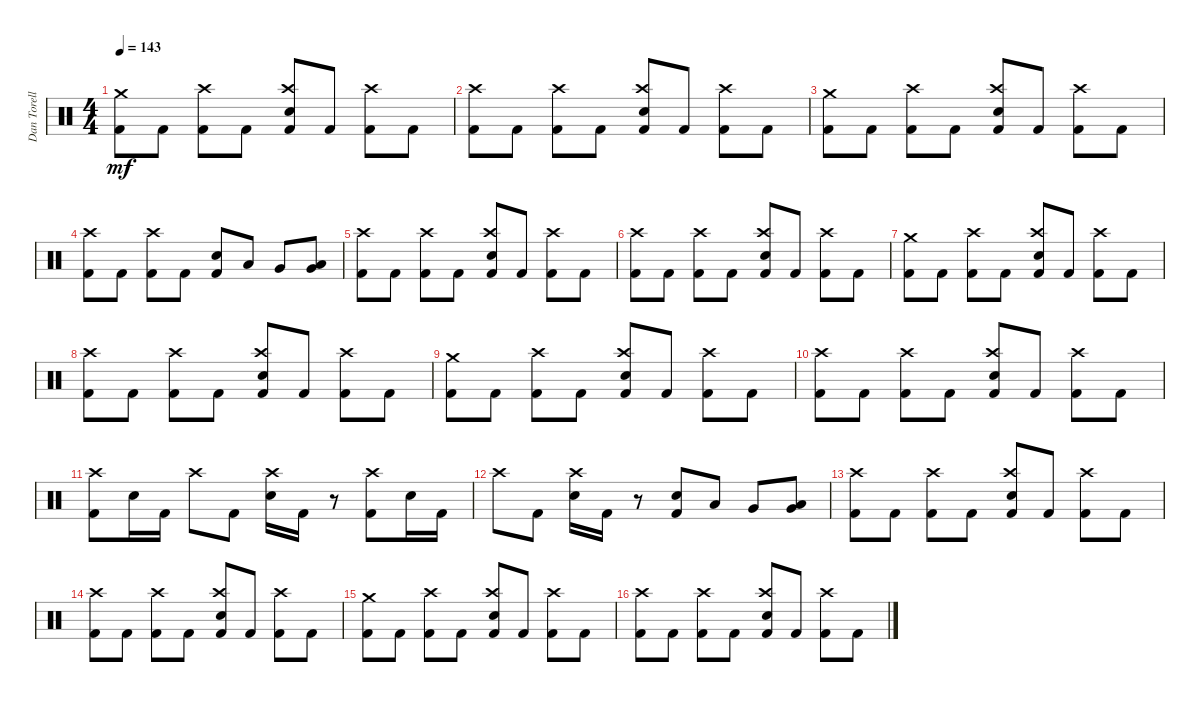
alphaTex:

\track ("Dan Torelli" "Dan Torell") {instrument percussion}
\staff {score}
\articulation defaults
\ts (4 4)
\tempo 143
\clef neutral
\ks c
("Crash medium (hit)" "Kick (hit) 2").8{dy mf} "Kick (hit) 2".8 ("Crash high (hit)" "Kick (hit) 2").8 "Kick (hit) 2".8 ("Crash high (hit)" "Snare (hit) 2" "Kick (hit) 2").8 "Kick (hit) 2".8 ("Crash high (hit)" "Kick (hit) 2").8 "Kick (hit) 2".8 |
("Crash high (hit)" "Kick (hit) 2").8 "Kick (hit) 2".8 ("Crash high (hit)" "Kick (hit) 2").8 "Kick (hit) 2".8 ("Crash high (hit)" "Snare (hit) 2" "Kick (hit) 2").8 "Kick (hit) 2".8 ("Crash high (hit)" "Kick (hit) 2").8 "Kick (hit) 2".8 |
("Crash medium (hit)" "Kick (hit) 2").8 "Kick (hit) 2".8 ("Crash high (hit)" "Kick (hit) 2").8 "Kick (hit) 2".8 ("Crash high (hit)" "Snare (hit) 2" "Kick (hit) 2").8 "Kick (hit) 2".8 ("Crash high (hit)" "Kick (hit) 2").8 "Kick (hit) 2".8 |
("Crash high (hit)" "Kick (hit) 2").8 "Kick (hit) 2".8 ("Crash high (hit)" "Kick (hit) 2").8 "Kick (hit) 2".8 ("Snare (hit) 2" "Kick (hit) 2").8 "Low Tom (hit)".8 "Very Low Tom (hit)".8 ("Very Low Tom (hit)" "Low Floor Tom (hit)").8 |
("Crash high (hit)" "Kick (hit) 2").8 "Kick (hit) 2".8 ("Crash high (hit)" "Kick (hit) 2").8 "Kick (hit) 2".8 ("Crash high (hit)" "Snare (hit) 2" "Kick (hit) 2").8 "Kick (hit) 2".8 ("Crash high (hit)" "Kick (hit) 2").8 "Kick (hit) 2".8 |
("Crash high (hit)" "Kick (hit) 2").8 "Kick (hit) 2".8 ("Crash high (hit)" "Kick (hit) 2").8 "Kick (hit) 2".8 ("Crash high (hit)" "Snare (hit) 2" "Kick (hit) 2").8 "Kick (hit) 2".8 ("Crash high (hit)" "Kick (hit) 2").8 "Kick (hit) 2".8 |
("Crash medium (hit)" "Kick (hit) 2").8 "Kick (hit) 2".8 ("Crash high (hit)" "Kick (hit) 2").8 "Kick (hit) 2".8 ("Crash high (hit)" "Snare (hit) 2" "Kick (hit) 2").8 "Kick (hit) 2".8 ("Crash high (hit)" "Kick (hit) 2").8 "Kick (hit) 2".8 |
("Crash high (hit)" "Kick (hit) 2").8 "Kick (hit) 2".8 ("Crash high (hit)" "Kick (hit) 2").8 "Kick (hit) 2".8 ("Crash high (hit)" "Snare (hit) 2" "Kick (hit) 2").8 "Kick (hit) 2".8 ("Crash high (hit)" "Kick (hit) 2").8 "Kick (hit) 2".8 |
("Crash medium (hit)" "Kick (hit) 2").8 "Kick (hit) 2".8 ("Crash high (hit)" "Kick (hit) 2").8 "Kick (hit) 2".8 ("Crash high (hit)" "Snare (hit) 2" "Kick (hit) 2").8 "Kick (hit) 2".8 ("Crash high (hit)" "Kick (hit) 2").8 "Kick (hit) 2".8 |
("Crash high (hit)" "Kick (hit) 2").8 "Kick (hit) 2".8 ("Crash high (hit)" "Kick (hit) 2").8 "Kick (hit) 2".8 ("Crash high (hit)" "Snare (hit) 2" "Kick (hit) 2").8 "Kick (hit) 2".8 ("Crash high (hit)" "Kick (hit) 2").8 "Kick (hit) 2".8 |
("Crash high (hit)" "Kick (hit) 2").8 "Snare (hit) 2".16 "Kick (hit) 2".16 "Crash high (hit)".8 "Kick (hit) 2".8 ("Crash high (hit)" "Snare (hit) 2").16 "Kick (hit) 2".16 r.8 ("Crash high (hit)" "Kick (hit) 2").8 "Snare (hit) 2".16 "Kick (hit) 2".16 |
"Crash high (hit)".8 "Kick (hit) 2".8 ("Crash high (hit)" "Snare (hit) 2").16 "Kick (hit) 2".16 r.8 ("Snare (hit) 2" "Kick (hit) 2").8 "Low Tom (hit)".8 "Very Low Tom (hit)".8 ("Very Low Tom (hit)" "Low Floor Tom (hit)").8 |
("Crash high (hit)" "Kick (hit) 2").8 "Kick (hit) 2".8 ("Crash high (hit)" "Kick (hit) 2").8 "Kick (hit) 2".8 ("Crash high (hit)" "Snare (hit) 2" "Kick (hit) 2").8 "Kick (hit) 2".8 ("Crash high (hit)" "Kick (hit) 2").8 "Kick (hit) 2".8 |
("Crash high (hit)" "Kick (hit) 2").8 "Kick (hit) 2".8 ("Crash high (hit)" "Kick (hit) 2").8 "Kick (hit) 2".8 ("Crash high (hit)" "Snare (hit) 2" "Kick (hit) 2").8 "Kick (hit) 2".8 ("Crash high (hit)" "Kick (hit) 2").8 "Kick (hit) 2".8 |
("Crash medium (hit)" "Kick (hit) 2").8 "Kick (hit) 2".8 ("Crash high (hit)" "Kick (hit) 2").8 "Kick (hit) 2".8 ("Crash high (hit)" "Snare (hit) 2" "Kick (hit) 2").8 "Kick (hit) 2".8 ("Crash high (hit)" "Kick (hit) 2").8 "Kick (hit) 2".8 |
("Crash high (hit)" "Kick (hit) 2").8 "Kick (hit) 2".8 ("Crash high (hit)" "Kick (hit) 2").8 "Kick (hit) 2".8 ("Crash high (hit)" "Snare (hit) 2" "Kick (hit) 2").8 "Kick (hit) 2".8 ("Crash high (hit)" "Kick (hit) 2").8 "Kick (hit) 2".8
